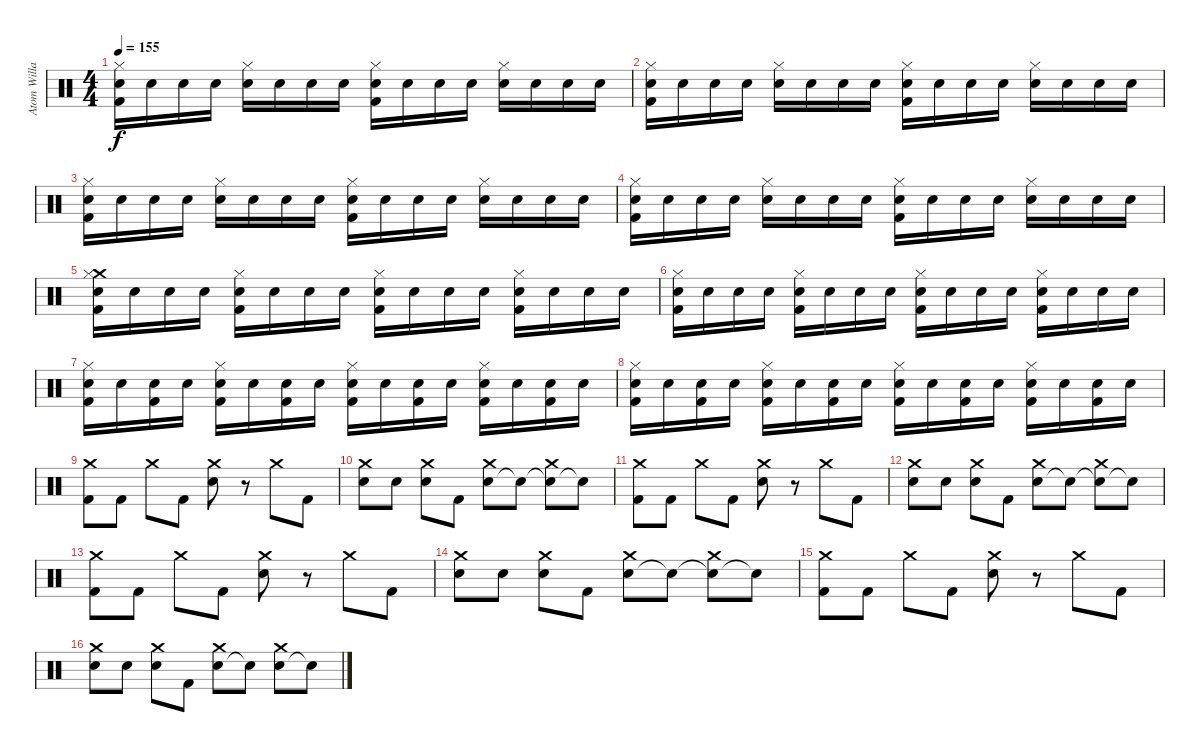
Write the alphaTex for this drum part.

\track ("Atom Willard - Drums" "Atom Willa") {instrument percussion}
\staff {score}
\articulation defaults
\ts (4 4)
\tempo 155
\clef neutral
\ks c
("Electric Snare (hit)" "Kick (hit) 2" "Hi-Hat (closed)").16{dy f} "Electric Snare (hit)".16 "Electric Snare (hit)".16 "Electric Snare (hit)".16 ("Electric Snare (hit)" "Hi-Hat (closed)").16 "Electric Snare (hit)".16 "Electric Snare (hit)".16 "Electric Snare (hit)".16 ("Electric Snare (hit)" "Kick (hit) 2" "Hi-Hat (closed)").16 "Electric Snare (hit)".16 "Electric Snare (hit)".16 "Electric Snare (hit)".16 ("Electric Snare (hit)" "Hi-Hat (closed)").16 "Electric Snare (hit)".16 "Electric Snare (hit)".16 "Electric Snare (hit)".16 |
("Electric Snare (hit)" "Kick (hit) 2" "Hi-Hat (closed)").16 "Electric Snare (hit)".16 "Electric Snare (hit)".16 "Electric Snare (hit)".16 ("Electric Snare (hit)" "Hi-Hat (closed)").16 "Electric Snare (hit)".16 "Electric Snare (hit)".16 "Electric Snare (hit)".16 ("Electric Snare (hit)" "Kick (hit) 2" "Hi-Hat (closed)").16 "Electric Snare (hit)".16 "Electric Snare (hit)".16 "Electric Snare (hit)".16 ("Electric Snare (hit)" "Hi-Hat (closed)").16 "Electric Snare (hit)".16 "Electric Snare (hit)".16 "Electric Snare (hit)".16 |
("Electric Snare (hit)" "Kick (hit) 2" "Hi-Hat (closed)").16 "Electric Snare (hit)".16 "Electric Snare (hit)".16 "Electric Snare (hit)".16 ("Electric Snare (hit)" "Hi-Hat (closed)").16 "Electric Snare (hit)".16 "Electric Snare (hit)".16 "Electric Snare (hit)".16 ("Electric Snare (hit)" "Kick (hit) 2" "Hi-Hat (closed)").16 "Electric Snare (hit)".16 "Electric Snare (hit)".16 "Electric Snare (hit)".16 ("Electric Snare (hit)" "Hi-Hat (closed)").16 "Electric Snare (hit)".16 "Electric Snare (hit)".16 "Electric Snare (hit)".16 |
("Electric Snare (hit)" "Kick (hit) 2" "Hi-Hat (closed)").16 "Electric Snare (hit)".16 "Electric Snare (hit)".16 "Electric Snare (hit)".16 ("Electric Snare (hit)" "Hi-Hat (closed)").16 "Electric Snare (hit)".16 "Electric Snare (hit)".16 "Electric Snare (hit)".16 ("Electric Snare (hit)" "Kick (hit) 2" "Hi-Hat (closed)").16 "Electric Snare (hit)".16 "Electric Snare (hit)".16 "Electric Snare (hit)".16 ("Electric Snare (hit)" "Hi-Hat (closed)").16 "Electric Snare (hit)".16 "Electric Snare (hit)".16 "Electric Snare (hit)".16 |
("Electric Snare (hit)" "Kick (hit) 2" "Crash medium (hit)" "Hi-Hat (closed)").16 "Electric Snare (hit)".16 "Electric Snare (hit)".16 "Electric Snare (hit)".16 ("Electric Snare (hit)" "Kick (hit) 2" "Hi-Hat (closed)").16 "Electric Snare (hit)".16 "Electric Snare (hit)".16 "Electric Snare (hit)".16 ("Electric Snare (hit)" "Kick (hit) 2" "Hi-Hat (closed)").16 "Electric Snare (hit)".16 "Electric Snare (hit)".16 "Electric Snare (hit)".16 ("Electric Snare (hit)" "Kick (hit) 2" "Hi-Hat (closed)").16 "Electric Snare (hit)".16 "Electric Snare (hit)".16 "Electric Snare (hit)".16 |
("Electric Snare (hit)" "Kick (hit) 2" "Hi-Hat (closed)").16 "Electric Snare (hit)".16 "Electric Snare (hit)".16 "Electric Snare (hit)".16 ("Electric Snare (hit)" "Kick (hit) 2" "Hi-Hat (closed)").16 "Electric Snare (hit)".16 "Electric Snare (hit)".16 "Electric Snare (hit)".16 ("Electric Snare (hit)" "Kick (hit) 2" "Hi-Hat (closed)").16 "Electric Snare (hit)".16 "Electric Snare (hit)".16 "Electric Snare (hit)".16 ("Electric Snare (hit)" "Kick (hit) 2" "Hi-Hat (closed)").16 "Electric Snare (hit)".16 "Electric Snare (hit)".16 "Electric Snare (hit)".16 |
("Electric Snare (hit)" "Kick (hit) 2" "Hi-Hat (closed)").16 "Electric Snare (hit)".16 ("Electric Snare (hit)" "Kick (hit) 2").16 "Electric Snare (hit)".16 ("Electric Snare (hit)" "Kick (hit) 2" "Hi-Hat (closed)").16 "Electric Snare (hit)".16 ("Electric Snare (hit)" "Kick (hit) 2").16 "Electric Snare (hit)".16 ("Electric Snare (hit)" "Kick (hit) 2" "Hi-Hat (closed)").16 "Electric Snare (hit)".16 ("Electric Snare (hit)" "Kick (hit) 2").16 "Electric Snare (hit)".16 ("Electric Snare (hit)" "Kick (hit) 2" "Hi-Hat (closed)").16 "Electric Snare (hit)".16 ("Electric Snare (hit)" "Kick (hit) 2").16 "Electric Snare (hit)".16 |
("Electric Snare (hit)" "Kick (hit) 2" "Hi-Hat (closed)").16 "Electric Snare (hit)".16 ("Electric Snare (hit)" "Kick (hit) 2").16 "Electric Snare (hit)".16 ("Electric Snare (hit)" "Kick (hit) 2" "Hi-Hat (closed)").16 "Electric Snare (hit)".16 ("Electric Snare (hit)" "Kick (hit) 2").16 "Electric Snare (hit)".16 ("Electric Snare (hit)" "Kick (hit) 2" "Hi-Hat (closed)").16 "Electric Snare (hit)".16 ("Electric Snare (hit)" "Kick (hit) 2").16 "Electric Snare (hit)".16 ("Electric Snare (hit)" "Kick (hit) 2" "Hi-Hat (closed)").16 "Electric Snare (hit)".16 ("Electric Snare (hit)" "Kick (hit) 2").16 "Electric Snare (hit)".16 |
("Kick (hit) 2" "Crash medium (hit)").8 "Kick (hit) 2".8 "Crash medium (hit)".8 "Kick (hit) 2".8 ("Electric Snare (hit)" "Crash medium (hit)").8 r.8 "Crash medium (hit)".8 "Kick (hit) 2".8 |
("Snare (hit)" "Crash medium (hit)").8 "Electric Snare (hit)".8 ("Snare (hit)" "Crash medium (hit)").8 "Kick (hit) 2".8 ("Electric Snare (hit)" "Crash medium (hit)").8 "Snare (hit)"{t}.8 ("Snare (hit)"{t} "Crash medium (hit)").8 "Snare (hit)"{t}.8 |
("Kick (hit) 2" "Crash medium (hit)").8 "Kick (hit) 2".8 "Crash medium (hit)".8 "Kick (hit) 2".8 ("Electric Snare (hit)" "Crash medium (hit)").8 r.8 "Crash medium (hit)".8 "Kick (hit) 2".8 |
("Snare (hit)" "Crash medium (hit)").8 "Electric Snare (hit)".8 ("Snare (hit)" "Crash medium (hit)").8 "Kick (hit) 2".8 ("Electric Snare (hit)" "Crash medium (hit)").8 "Snare (hit)"{t}.8 ("Snare (hit)"{t} "Crash medium (hit)").8 "Snare (hit)"{t}.8 |
("Kick (hit) 2" "Crash medium (hit)").8 "Kick (hit) 2".8 "Crash medium (hit)".8 "Kick (hit) 2".8 ("Electric Snare (hit)" "Crash medium (hit)").8 r.8 "Crash medium (hit)".8 "Kick (hit) 2".8 |
("Snare (hit)" "Crash medium (hit)").8 "Electric Snare (hit)".8 ("Snare (hit)" "Crash medium (hit)").8 "Kick (hit) 2".8 ("Electric Snare (hit)" "Crash medium (hit)").8 "Snare (hit)"{t}.8 ("Snare (hit)"{t} "Crash medium (hit)").8 "Snare (hit)"{t}.8 |
("Kick (hit) 2" "Crash medium (hit)").8 "Kick (hit) 2".8 "Crash medium (hit)".8 "Kick (hit) 2".8 ("Electric Snare (hit)" "Crash medium (hit)").8 r.8 "Crash medium (hit)".8 "Kick (hit) 2".8 |
("Snare (hit)" "Crash medium (hit)").8 "Electric Snare (hit)".8 ("Snare (hit)" "Crash medium (hit)").8 "Kick (hit) 2".8 ("Electric Snare (hit)" "Crash medium (hit)").8 "Snare (hit)"{t}.8 ("Electric Snare (hit)" "Crash medium (hit)").8 "Snare (hit)"{t}.8
